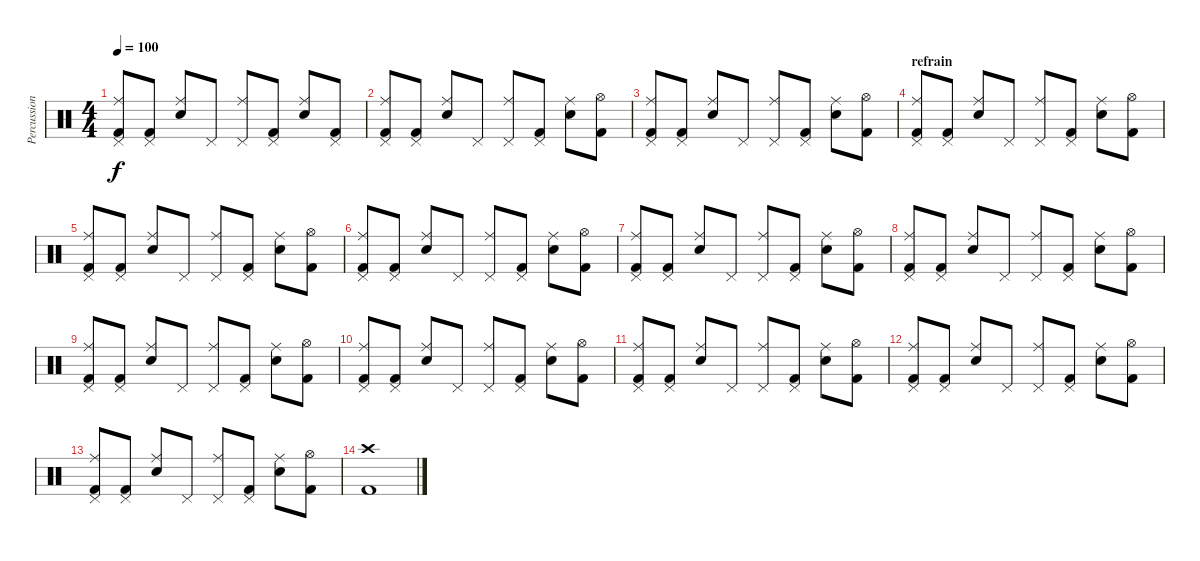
\track ("Percussions" "Percussion") {instrument percussion}
\staff {score}
\articulation defaults
\ts (4 4)
\tempo 100
\clef neutral
\ks c
("Pedal Hi-Hat (hit)" "Kick (hit) 2" "Ride (middle)").8{dy f} ("Pedal Hi-Hat (hit)" "Kick (hit) 2").8 ("Ride (middle)" "Snare (hit) 2").8 "Pedal Hi-Hat (hit)".8 ("Pedal Hi-Hat (hit)" "Ride (middle)").8 ("Pedal Hi-Hat (hit)" "Kick (hit) 2").8 ("Ride (middle)" "Snare (hit) 2").8 ("Pedal Hi-Hat (hit)" "Kick (hit) 2").8 |
("Pedal Hi-Hat (hit)" "Kick (hit) 2" "Ride (middle)").8 ("Pedal Hi-Hat (hit)" "Kick (hit) 2").8 ("Ride (middle)" "Snare (hit) 2").8 "Pedal Hi-Hat (hit)".8 ("Pedal Hi-Hat (hit)" "Ride (middle)").8 ("Pedal Hi-Hat (hit)" "Kick (hit) 2").8 ("Ride (middle)" "Snare (hit) 2").8 ("Hi-Hat (open)" "Kick (hit) 2").8 |
("Pedal Hi-Hat (hit)" "Kick (hit) 2" "Ride (middle)").8 ("Pedal Hi-Hat (hit)" "Kick (hit) 2").8 ("Ride (middle)" "Snare (hit) 2").8 "Pedal Hi-Hat (hit)".8 ("Pedal Hi-Hat (hit)" "Ride (middle)").8 ("Pedal Hi-Hat (hit)" "Kick (hit) 2").8 ("Ride (middle)" "Snare (hit) 2").8 ("Hi-Hat (open)" "Kick (hit) 2").8 |
\section ("" "refrain")
("Pedal Hi-Hat (hit)" "Kick (hit) 2" "Ride (middle)").8 ("Pedal Hi-Hat (hit)" "Kick (hit) 2").8 ("Ride (middle)" "Snare (hit) 2").8 "Pedal Hi-Hat (hit)".8 ("Pedal Hi-Hat (hit)" "Ride (middle)").8 ("Pedal Hi-Hat (hit)" "Kick (hit) 2").8 ("Ride (middle)" "Snare (hit) 2").8 ("Hi-Hat (open)" "Kick (hit) 2").8 |
("Pedal Hi-Hat (hit)" "Kick (hit) 2" "Ride (middle)").8 ("Pedal Hi-Hat (hit)" "Kick (hit) 2").8 ("Ride (middle)" "Snare (hit) 2").8 "Pedal Hi-Hat (hit)".8 ("Pedal Hi-Hat (hit)" "Ride (middle)").8 ("Pedal Hi-Hat (hit)" "Kick (hit) 2").8 ("Ride (middle)" "Snare (hit) 2").8 ("Hi-Hat (open)" "Kick (hit) 2").8 |
("Pedal Hi-Hat (hit)" "Kick (hit) 2" "Ride (middle)").8 ("Pedal Hi-Hat (hit)" "Kick (hit) 2").8 ("Ride (middle)" "Snare (hit) 2").8 "Pedal Hi-Hat (hit)".8 ("Pedal Hi-Hat (hit)" "Ride (middle)").8 ("Pedal Hi-Hat (hit)" "Kick (hit) 2").8 ("Ride (middle)" "Snare (hit) 2").8 ("Hi-Hat (open)" "Kick (hit) 2").8 |
("Pedal Hi-Hat (hit)" "Kick (hit) 2" "Ride (middle)").8 ("Pedal Hi-Hat (hit)" "Kick (hit) 2").8 ("Ride (middle)" "Snare (hit) 2").8 "Pedal Hi-Hat (hit)".8 ("Pedal Hi-Hat (hit)" "Ride (middle)").8 ("Pedal Hi-Hat (hit)" "Kick (hit) 2").8 ("Ride (middle)" "Snare (hit) 2").8 ("Hi-Hat (open)" "Kick (hit) 2").8 |
("Pedal Hi-Hat (hit)" "Kick (hit) 2" "Ride (middle)").8 ("Pedal Hi-Hat (hit)" "Kick (hit) 2").8 ("Ride (middle)" "Snare (hit) 2").8 "Pedal Hi-Hat (hit)".8 ("Pedal Hi-Hat (hit)" "Ride (middle)").8 ("Pedal Hi-Hat (hit)" "Kick (hit) 2").8 ("Ride (middle)" "Snare (hit) 2").8 ("Hi-Hat (open)" "Kick (hit) 2").8 |
("Pedal Hi-Hat (hit)" "Kick (hit) 2" "Ride (middle)").8 ("Pedal Hi-Hat (hit)" "Kick (hit) 2").8 ("Ride (middle)" "Snare (hit) 2").8 "Pedal Hi-Hat (hit)".8 ("Pedal Hi-Hat (hit)" "Ride (middle)").8 ("Pedal Hi-Hat (hit)" "Kick (hit) 2").8 ("Ride (middle)" "Snare (hit) 2").8 ("Hi-Hat (open)" "Kick (hit) 2").8 |
("Pedal Hi-Hat (hit)" "Kick (hit) 2" "Ride (middle)").8 ("Pedal Hi-Hat (hit)" "Kick (hit) 2").8 ("Ride (middle)" "Snare (hit) 2").8 "Pedal Hi-Hat (hit)".8 ("Pedal Hi-Hat (hit)" "Ride (middle)").8 ("Pedal Hi-Hat (hit)" "Kick (hit) 2").8 ("Ride (middle)" "Snare (hit) 2").8 ("Hi-Hat (open)" "Kick (hit) 2").8 |
("Pedal Hi-Hat (hit)" "Kick (hit) 2" "Ride (middle)").8 ("Pedal Hi-Hat (hit)" "Kick (hit) 2").8 ("Ride (middle)" "Snare (hit) 2").8 "Pedal Hi-Hat (hit)".8 ("Pedal Hi-Hat (hit)" "Ride (middle)").8 ("Pedal Hi-Hat (hit)" "Kick (hit) 2").8 ("Ride (middle)" "Snare (hit) 2").8 ("Hi-Hat (open)" "Kick (hit) 2").8 |
("Pedal Hi-Hat (hit)" "Kick (hit) 2" "Ride (middle)").8 ("Pedal Hi-Hat (hit)" "Kick (hit) 2").8 ("Ride (middle)" "Snare (hit) 2").8 "Pedal Hi-Hat (hit)".8 ("Pedal Hi-Hat (hit)" "Ride (middle)").8 ("Pedal Hi-Hat (hit)" "Kick (hit) 2").8 ("Ride (middle)" "Snare (hit) 2").8 ("Hi-Hat (open)" "Kick (hit) 2").8 |
("Pedal Hi-Hat (hit)" "Kick (hit) 2" "Ride (middle)").8 ("Pedal Hi-Hat (hit)" "Kick (hit) 2").8 ("Ride (middle)" "Snare (hit) 2").8 "Pedal Hi-Hat (hit)".8 ("Pedal Hi-Hat (hit)" "Ride (middle)").8 ("Pedal Hi-Hat (hit)" "Kick (hit) 2").8 ("Ride (middle)" "Snare (hit) 2").8 ("Hi-Hat (open)" "Kick (hit) 2").8 |
("Crash high (hit)" "Kick (hit) 2").1
